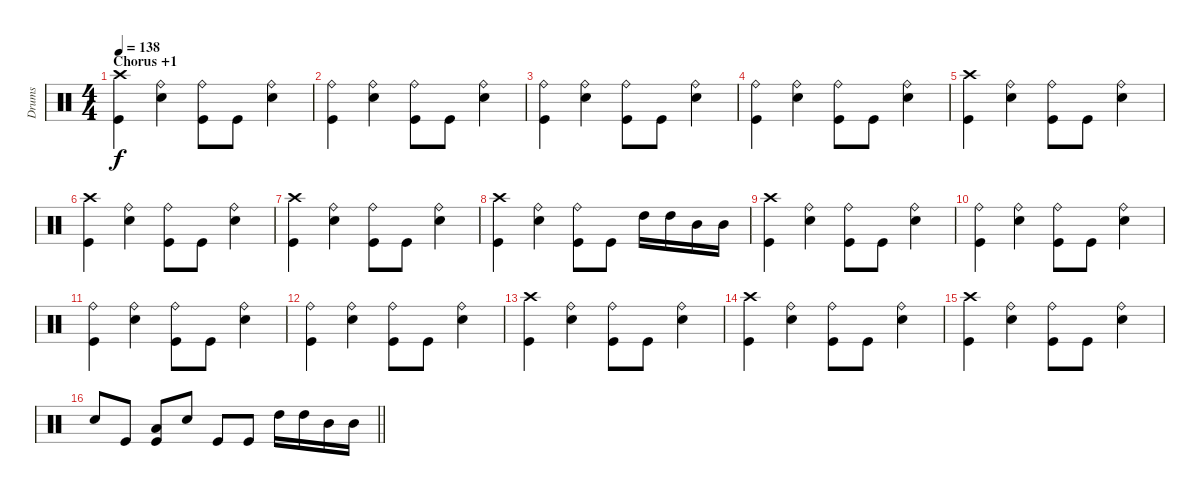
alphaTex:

\track ("Drums" "Drums") {instrument percussion}
\staff {score}
\articulation defaults
\ts (4 4)
\section ("" "Chorus +1")
\tempo 138
\clef neutral
\ks c
("Crash high (hit)" "Kick (hit)").4{dy f} ("Ride (bell)" "Electric Snare (hit)").4 ("Ride (bell)" "Kick (hit)").8 "Kick (hit)".8 ("Ride (bell)" "Electric Snare (hit)").4 |
("Ride (bell)" "Kick (hit)").4 ("Ride (bell)" "Electric Snare (hit)").4 ("Ride (bell)" "Kick (hit)").8 "Kick (hit)".8 ("Ride (bell)" "Electric Snare (hit)").4 |
("Ride (bell)" "Kick (hit)").4 ("Ride (bell)" "Electric Snare (hit)").4 ("Ride (bell)" "Kick (hit)").8 "Kick (hit)".8 ("Ride (bell)" "Electric Snare (hit)").4 |
("Ride (bell)" "Kick (hit)").4 ("Ride (bell)" "Electric Snare (hit)").4 ("Ride (bell)" "Kick (hit)").8 "Kick (hit)".8 ("Ride (bell)" "Electric Snare (hit)").4 |
("Crash high (hit)" "Kick (hit)").4 ("Ride (bell)" "Electric Snare (hit)").4 ("Ride (bell)" "Kick (hit)").8 "Kick (hit)".8 ("Ride (bell)" "Electric Snare (hit)").4 |
("Crash high (hit)" "Kick (hit)").4 ("Ride (bell)" "Electric Snare (hit)").4 ("Ride (bell)" "Kick (hit)").8 "Kick (hit)".8 ("Ride (bell)" "Electric Snare (hit)").4 |
("Crash high (hit)" "Kick (hit)").4 ("Ride (bell)" "Electric Snare (hit)").4 ("Ride (bell)" "Kick (hit)").8 "Kick (hit)".8 ("Ride (bell)" "Electric Snare (hit)").4 |
("Crash high (hit)" "Kick (hit)").4 ("Ride (bell)" "Electric Snare (hit)").4 ("Ride (bell)" "Kick (hit)").8 "Kick (hit)".8 "High Tom (hit)".16 "High Tom (hit)".16 "Mid Tom (hit)".16 "Mid Tom (hit)".16 |
("Crash high (hit)" "Kick (hit)").4 ("Ride (bell)" "Electric Snare (hit)").4 ("Ride (bell)" "Kick (hit)").8 "Kick (hit)".8 ("Ride (bell)" "Electric Snare (hit)").4 |
("Ride (bell)" "Kick (hit)").4 ("Ride (bell)" "Electric Snare (hit)").4 ("Ride (bell)" "Kick (hit)").8 "Kick (hit)".8 ("Ride (bell)" "Electric Snare (hit)").4 |
("Ride (bell)" "Kick (hit)").4 ("Ride (bell)" "Electric Snare (hit)").4 ("Ride (bell)" "Kick (hit)").8 "Kick (hit)".8 ("Ride (bell)" "Electric Snare (hit)").4 |
("Ride (bell)" "Kick (hit)").4 ("Ride (bell)" "Electric Snare (hit)").4 ("Ride (bell)" "Kick (hit)").8 "Kick (hit)".8 ("Ride (bell)" "Electric Snare (hit)").4 |
("Crash high (hit)" "Kick (hit)").4 ("Ride (bell)" "Electric Snare (hit)").4 ("Ride (bell)" "Kick (hit)").8 "Kick (hit)".8 ("Ride (bell)" "Electric Snare (hit)").4 |
("Crash high (hit)" "Kick (hit)").4 ("Ride (bell)" "Electric Snare (hit)").4 ("Ride (bell)" "Kick (hit)").8 "Kick (hit)".8 ("Ride (bell)" "Electric Snare (hit)").4 |
("Crash high (hit)" "Kick (hit)").4 ("Ride (bell)" "Electric Snare (hit)").4 ("Ride (bell)" "Kick (hit)").8 "Kick (hit)".8 ("Ride (bell)" "Electric Snare (hit)").4 |
\barLineRight lightlight "Electric Snare (hit)".8 "Kick (hit)".8
("Low Floor Tom (hit)" "Kick (hit)").8 "Electric Snare (hit)".8 "Kick (hit)".8 "Kick (hit)".8 "High Tom (hit)".16 "High Tom (hit)".16 "Mid Tom (hit)".16 "Mid Tom (hit)".16
